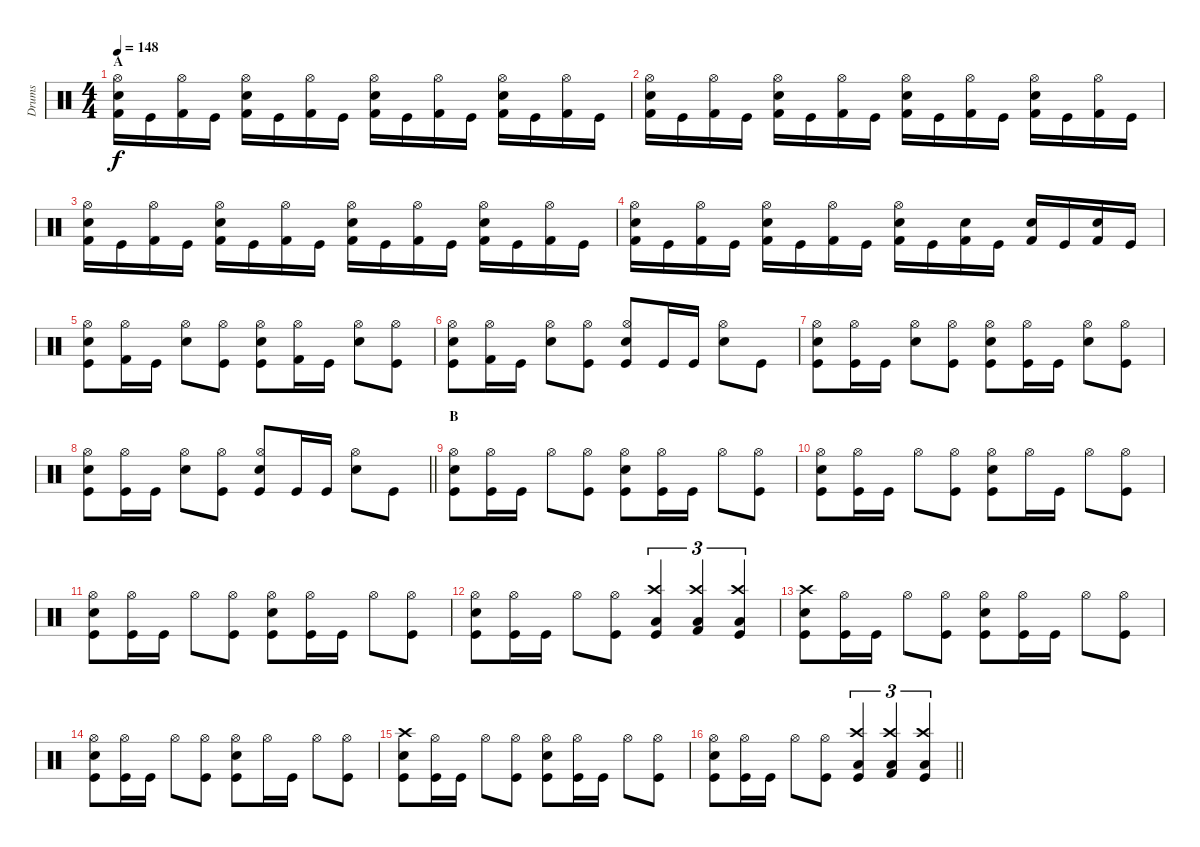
\track ("Drums" "Drums") {instrument percussion}
\staff {score}
\articulation defaults
\ts (4 4)
\section ("" "A")
\tempo 148
\clef neutral
\ks c
("Kick (hit) 2" "Snare (hit) 2" "Hi-Hat (open)").16{dy f} "Kick (hit)".16 ("Kick (hit) 2" "Hi-Hat (open)").16 "Kick (hit)".16 ("Kick (hit) 2" "Snare (hit) 2" "Hi-Hat (open)").16 "Kick (hit)".16 ("Kick (hit) 2" "Hi-Hat (open)").16 "Kick (hit)".16 ("Kick (hit) 2" "Snare (hit) 2" "Hi-Hat (open)").16 "Kick (hit)".16 ("Kick (hit) 2" "Hi-Hat (open)").16 "Kick (hit)".16 ("Kick (hit) 2" "Snare (hit) 2" "Hi-Hat (open)").16 "Kick (hit)".16 ("Kick (hit) 2" "Hi-Hat (open)").16 "Kick (hit)".16 |
("Kick (hit) 2" "Snare (hit) 2" "Hi-Hat (open)").16 "Kick (hit)".16 ("Kick (hit) 2" "Hi-Hat (open)").16 "Kick (hit)".16 ("Kick (hit) 2" "Snare (hit) 2" "Hi-Hat (open)").16 "Kick (hit)".16 ("Kick (hit) 2" "Hi-Hat (open)").16 "Kick (hit)".16 ("Kick (hit) 2" "Snare (hit) 2" "Hi-Hat (open)").16 "Kick (hit)".16 ("Kick (hit) 2" "Hi-Hat (open)").16 "Kick (hit)".16 ("Kick (hit) 2" "Snare (hit) 2" "Hi-Hat (open)").16 "Kick (hit)".16 ("Kick (hit) 2" "Hi-Hat (open)").16 "Kick (hit)".16 |
("Kick (hit) 2" "Snare (hit) 2" "Hi-Hat (open)").16 "Kick (hit)".16 ("Kick (hit) 2" "Hi-Hat (open)").16 "Kick (hit)".16 ("Kick (hit) 2" "Snare (hit) 2" "Hi-Hat (open)").16 "Kick (hit)".16 ("Kick (hit) 2" "Hi-Hat (open)").16 "Kick (hit)".16 ("Kick (hit) 2" "Snare (hit) 2" "Hi-Hat (open)").16 "Kick (hit)".16 ("Kick (hit) 2" "Hi-Hat (open)").16 "Kick (hit)".16 ("Kick (hit) 2" "Snare (hit) 2" "Hi-Hat (open)").16 "Kick (hit)".16 ("Kick (hit) 2" "Hi-Hat (open)").16 "Kick (hit)".16 |
("Kick (hit) 2" "Snare (hit) 2" "Hi-Hat (open)").16 "Kick (hit)".16 ("Kick (hit) 2" "Hi-Hat (open)").16 "Kick (hit)".16 ("Kick (hit) 2" "Snare (hit) 2" "Hi-Hat (open)").16 "Kick (hit)".16 ("Kick (hit) 2" "Hi-Hat (open)").16 "Kick (hit)".16 ("Kick (hit) 2" "Snare (hit) 2" "Hi-Hat (open)").16 "Kick (hit)".16 ("Kick (hit) 2" "Snare (hit) 2").16 "Kick (hit)".16 ("Kick (hit) 2" "Snare (hit) 2").16 "Kick (hit)".16 ("Kick (hit) 2" "Snare (hit) 2").16 "Kick (hit)".16 |
("Kick (hit)" "Snare (hit) 2" "Hi-Hat (open)").8 ("Kick (hit) 2" "Hi-Hat (open)").16 "Kick (hit)".16 ("Snare (hit) 2" "Hi-Hat (open)").8 ("Kick (hit)" "Hi-Hat (open)").8 ("Kick (hit)" "Snare (hit) 2" "Hi-Hat (open)").8 ("Kick (hit) 2" "Hi-Hat (open)").16 "Kick (hit)".16 ("Snare (hit) 2" "Hi-Hat (open)").8 ("Kick (hit)" "Hi-Hat (open)").8 |
("Kick (hit)" "Snare (hit) 2" "Hi-Hat (open)").8 ("Kick (hit) 2" "Hi-Hat (open)").16 "Kick (hit)".16 ("Snare (hit) 2" "Hi-Hat (open)").8 ("Kick (hit)" "Hi-Hat (open)").8 ("Kick (hit)" "Snare (hit) 2" "Hi-Hat (open)").8 "Kick (hit)".16 "Kick (hit)".16 ("Snare (hit) 2" "Hi-Hat (open)").8 "Kick (hit)".8 |
("Kick (hit)" "Snare (hit) 2" "Hi-Hat (open)").8 ("Kick (hit)" "Hi-Hat (open)").16 "Kick (hit)".16 ("Snare (hit) 2" "Hi-Hat (open)").8 ("Kick (hit)" "Hi-Hat (open)").8 ("Kick (hit)" "Snare (hit) 2" "Hi-Hat (open)").8 ("Kick (hit)" "Hi-Hat (open)").16 "Kick (hit)".16 ("Snare (hit) 2" "Hi-Hat (open)").8 ("Kick (hit)" "Hi-Hat (open)").8 |
\barLineRight lightlight
("Kick (hit)" "Snare (hit) 2" "Hi-Hat (open)").8 ("Kick (hit)" "Hi-Hat (open)").16 "Kick (hit)".16 ("Snare (hit) 2" "Hi-Hat (open)").8 ("Kick (hit)" "Hi-Hat (open)").8 ("Kick (hit)" "Snare (hit) 2" "Hi-Hat (open)").8 "Kick (hit)".16 "Kick (hit)".16 ("Snare (hit) 2" "Hi-Hat (open)").8 "Kick (hit)".8 |
\section ("" "B")
("Kick (hit)" "Snare (hit) 2" "Hi-Hat (open)").8 ("Kick (hit)" "Hi-Hat (open)").16 "Kick (hit)".16 "Hi-Hat (open)".8 ("Kick (hit)" "Hi-Hat (open)").8 ("Kick (hit)" "Snare (hit) 2" "Hi-Hat (open)").8 ("Kick (hit)" "Hi-Hat (open)").16 "Kick (hit)".16 "Hi-Hat (open)".8 ("Kick (hit)" "Hi-Hat (open)").8 |
("Kick (hit)" "Snare (hit) 2" "Hi-Hat (open)").8 ("Kick (hit)" "Hi-Hat (open)").16 "Kick (hit)".16 "Hi-Hat (open)".8 ("Kick (hit)" "Hi-Hat (open)").8 ("Kick (hit)" "Snare (hit) 2" "Hi-Hat (open)").8 "Hi-Hat (open)".16 "Kick (hit)".16 "Hi-Hat (open)".8 ("Kick (hit)" "Hi-Hat (open)").8 |
("Kick (hit)" "Snare (hit) 2" "Hi-Hat (open)").8 ("Kick (hit)" "Hi-Hat (open)").16 "Kick (hit)".16 "Hi-Hat (open)".8 ("Kick (hit)" "Hi-Hat (open)").8 ("Kick (hit)" "Snare (hit) 2" "Hi-Hat (open)").8 ("Kick (hit)" "Hi-Hat (open)").16 "Kick (hit)".16 "Hi-Hat (open)".8 ("Kick (hit)" "Hi-Hat (open)").8 |
("Kick (hit)" "Snare (hit) 2" "Hi-Hat (open)").8 ("Kick (hit)" "Hi-Hat (open)").16 "Kick (hit)".16 "Hi-Hat (open)".8 ("Kick (hit)" "Hi-Hat (open)").8 ("Kick (hit)" "Crash high (hit)" "Low Floor Tom (hit)").4{tu (3 2)} ("Kick (hit) 2" "Crash high (hit)" "Low Floor Tom (hit)").4{tu (3 2)} ("Kick (hit)" "Crash high (hit)" "Low Floor Tom (hit)").4{tu (3 2)} |
("Kick (hit)" "Snare (hit) 2" "Crash high (hit)").8 ("Kick (hit)" "Hi-Hat (open)").16 "Kick (hit)".16 "Hi-Hat (open)".8 ("Kick (hit)" "Hi-Hat (open)").8 ("Kick (hit)" "Snare (hit) 2" "Hi-Hat (open)").8 ("Kick (hit)" "Hi-Hat (open)").16 "Kick (hit)".16 "Hi-Hat (open)".8 ("Kick (hit)" "Hi-Hat (open)").8 |
("Kick (hit)" "Snare (hit) 2" "Hi-Hat (open)").8 ("Kick (hit)" "Hi-Hat (open)").16 "Kick (hit)".16 "Hi-Hat (open)".8 ("Kick (hit)" "Hi-Hat (open)").8 ("Kick (hit)" "Snare (hit) 2" "Hi-Hat (open)").8 "Hi-Hat (open)".16 "Kick (hit)".16 "Hi-Hat (open)".8 ("Kick (hit)" "Hi-Hat (open)").8 |
("Kick (hit)" "Snare (hit) 2" "Crash high (hit)").8 ("Kick (hit)" "Hi-Hat (open)").16 "Kick (hit)".16 "Hi-Hat (open)".8 ("Kick (hit)" "Hi-Hat (open)").8 ("Kick (hit)" "Snare (hit) 2" "Hi-Hat (open)").8 ("Kick (hit)" "Hi-Hat (open)").16 "Kick (hit)".16 "Hi-Hat (open)".8 ("Kick (hit)" "Hi-Hat (open)").8 |
\barLineRight lightlight
("Kick (hit)" "Snare (hit) 2" "Hi-Hat (open)").8 ("Kick (hit)" "Hi-Hat (open)").16 "Kick (hit)".16 "Hi-Hat (open)".8 ("Kick (hit)" "Hi-Hat (open)").8 ("Kick (hit)" "Crash high (hit)" "Low Floor Tom (hit)").4{tu (3 2)} ("Kick (hit) 2" "Crash high (hit)" "Low Floor Tom (hit)").4{tu (3 2)} ("Kick (hit)" "Crash high (hit)" "Low Floor Tom (hit)").4{tu (3 2)}
